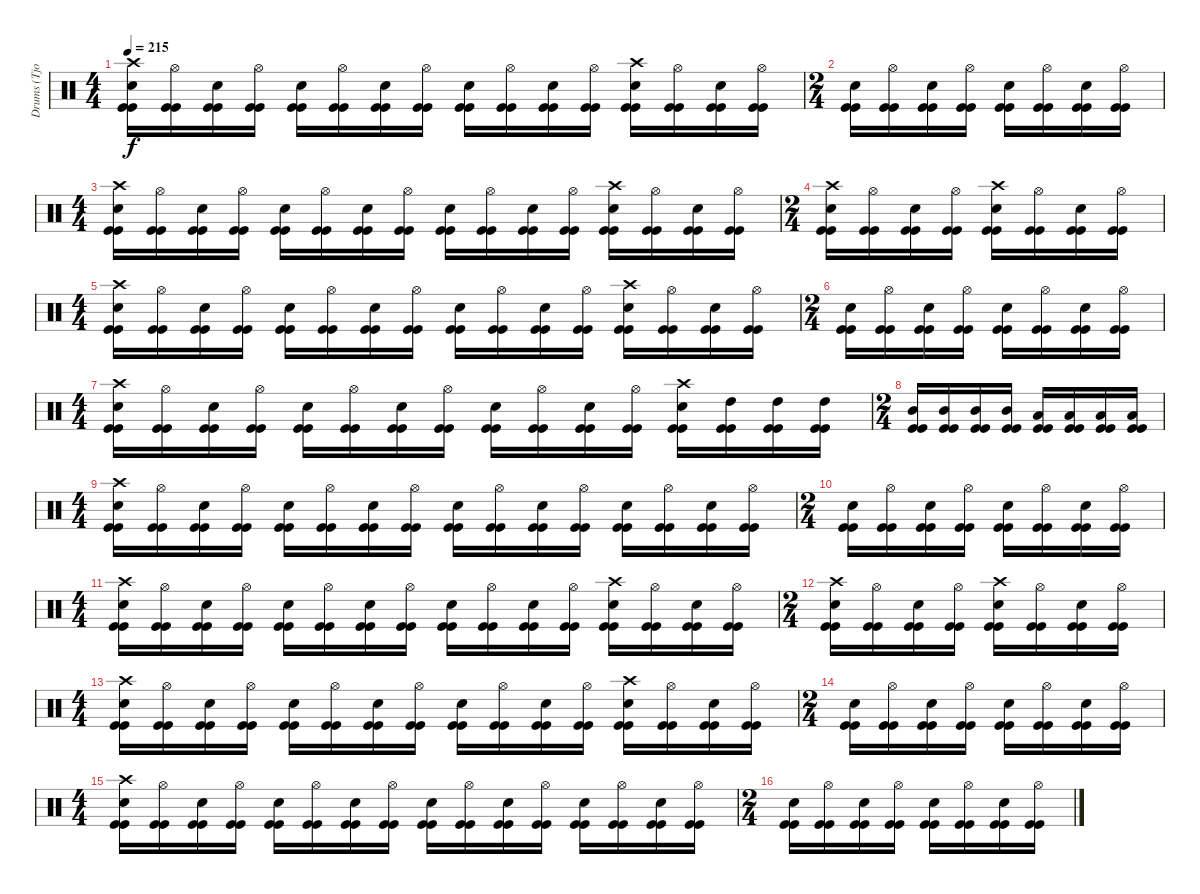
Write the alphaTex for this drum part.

\track ("Drums (Tjodalv)" "Drums (Tjo") {instrument percussion}
\staff {score}
\articulation defaults
\ts (4 4)
\tempo 215
\clef neutral
\ks c
("Crash high (hit)" "Snare (hit) 2" "Kick (hit)" "Kick (hit)").16{dy f} ("Hi-Hat (open)" "Kick (hit)" "Kick (hit)").16 ("Snare (hit) 2" "Kick (hit)" "Kick (hit)").16 ("Hi-Hat (open)" "Kick (hit)" "Kick (hit)").16 ("Snare (hit) 2" "Kick (hit)" "Kick (hit)").16 ("Hi-Hat (open)" "Kick (hit)" "Kick (hit)").16 ("Snare (hit) 2" "Kick (hit)" "Kick (hit)").16 ("Hi-Hat (open)" "Kick (hit)" "Kick (hit)").16 ("Snare (hit) 2" "Kick (hit)" "Kick (hit)").16 ("Hi-Hat (open)" "Kick (hit)" "Kick (hit)").16 ("Snare (hit) 2" "Kick (hit)" "Kick (hit)").16 ("Hi-Hat (open)" "Kick (hit)" "Kick (hit)").16 ("Crash high (hit)" "Snare (hit) 2" "Kick (hit)" "Kick (hit)").16 ("Hi-Hat (open)" "Kick (hit)" "Kick (hit)").16 ("Snare (hit) 2" "Kick (hit)" "Kick (hit)").16 ("Hi-Hat (open)" "Kick (hit)" "Kick (hit)").16 |
\ts (2 4)
("Snare (hit) 2" "Kick (hit)" "Kick (hit)").16 ("Hi-Hat (open)" "Kick (hit)" "Kick (hit)").16 ("Snare (hit) 2" "Kick (hit)" "Kick (hit)").16 ("Hi-Hat (open)" "Kick (hit)" "Kick (hit)").16 ("Snare (hit) 2" "Kick (hit)" "Kick (hit)").16 ("Hi-Hat (open)" "Kick (hit)" "Kick (hit)").16 ("Snare (hit) 2" "Kick (hit)" "Kick (hit)").16 ("Hi-Hat (open)" "Kick (hit)" "Kick (hit)").16 |
\ts (4 4)
("Crash high (hit)" "Snare (hit) 2" "Kick (hit)" "Kick (hit)").16 ("Hi-Hat (open)" "Kick (hit)" "Kick (hit)").16 ("Snare (hit) 2" "Kick (hit)" "Kick (hit)").16 ("Hi-Hat (open)" "Kick (hit)" "Kick (hit)").16 ("Snare (hit) 2" "Kick (hit)" "Kick (hit)").16 ("Hi-Hat (open)" "Kick (hit)" "Kick (hit)").16 ("Snare (hit) 2" "Kick (hit)" "Kick (hit)").16 ("Hi-Hat (open)" "Kick (hit)" "Kick (hit)").16 ("Snare (hit) 2" "Kick (hit)" "Kick (hit)").16 ("Hi-Hat (open)" "Kick (hit)" "Kick (hit)").16 ("Snare (hit) 2" "Kick (hit)" "Kick (hit)").16 ("Hi-Hat (open)" "Kick (hit)" "Kick (hit)").16 ("Crash high (hit)" "Snare (hit) 2" "Kick (hit)" "Kick (hit)").16 ("Hi-Hat (open)" "Kick (hit)" "Kick (hit)").16 ("Snare (hit) 2" "Kick (hit)" "Kick (hit)").16 ("Hi-Hat (open)" "Kick (hit)" "Kick (hit)").16 |
\ts (2 4)
("Crash high (hit)" "Snare (hit) 2" "Kick (hit)" "Kick (hit)").16 ("Hi-Hat (open)" "Kick (hit)" "Kick (hit)").16 ("Snare (hit) 2" "Kick (hit)" "Kick (hit)").16 ("Hi-Hat (open)" "Kick (hit)" "Kick (hit)").16 ("Crash high (hit)" "Snare (hit) 2" "Kick (hit)" "Kick (hit)").16 ("Hi-Hat (open)" "Kick (hit)" "Kick (hit)").16 ("Snare (hit) 2" "Kick (hit)" "Kick (hit)").16 ("Hi-Hat (open)" "Kick (hit)" "Kick (hit)").16 |
\ts (4 4)
("Crash high (hit)" "Snare (hit) 2" "Kick (hit)" "Kick (hit)").16 ("Hi-Hat (open)" "Kick (hit)" "Kick (hit)").16 ("Snare (hit) 2" "Kick (hit)" "Kick (hit)").16 ("Hi-Hat (open)" "Kick (hit)" "Kick (hit)").16 ("Snare (hit) 2" "Kick (hit)" "Kick (hit)").16 ("Hi-Hat (open)" "Kick (hit)" "Kick (hit)").16 ("Snare (hit) 2" "Kick (hit)" "Kick (hit)").16 ("Hi-Hat (open)" "Kick (hit)" "Kick (hit)").16 ("Snare (hit) 2" "Kick (hit)" "Kick (hit)").16 ("Hi-Hat (open)" "Kick (hit)" "Kick (hit)").16 ("Snare (hit) 2" "Kick (hit)" "Kick (hit)").16 ("Hi-Hat (open)" "Kick (hit)" "Kick (hit)").16 ("Crash high (hit)" "Snare (hit) 2" "Kick (hit)" "Kick (hit)").16 ("Hi-Hat (open)" "Kick (hit)" "Kick (hit)").16 ("Snare (hit) 2" "Kick (hit)" "Kick (hit)").16 ("Hi-Hat (open)" "Kick (hit)" "Kick (hit)").16 |
\ts (2 4)
("Snare (hit) 2" "Kick (hit)" "Kick (hit)").16 ("Hi-Hat (open)" "Kick (hit)" "Kick (hit)").16 ("Snare (hit) 2" "Kick (hit)" "Kick (hit)").16 ("Hi-Hat (open)" "Kick (hit)" "Kick (hit)").16 ("Snare (hit) 2" "Kick (hit)" "Kick (hit)").16 ("Hi-Hat (open)" "Kick (hit)" "Kick (hit)").16 ("Snare (hit) 2" "Kick (hit)" "Kick (hit)").16 ("Hi-Hat (open)" "Kick (hit)" "Kick (hit)").16 |
\ts (4 4)
("Crash high (hit)" "Snare (hit) 2" "Kick (hit)" "Kick (hit)").16 ("Hi-Hat (open)" "Kick (hit)" "Kick (hit)").16 ("Snare (hit) 2" "Kick (hit)" "Kick (hit)").16 ("Hi-Hat (open)" "Kick (hit)" "Kick (hit)").16 ("Snare (hit) 2" "Kick (hit)" "Kick (hit)").16 ("Hi-Hat (open)" "Kick (hit)" "Kick (hit)").16 ("Snare (hit) 2" "Kick (hit)" "Kick (hit)").16 ("Hi-Hat (open)" "Kick (hit)" "Kick (hit)").16 ("Snare (hit) 2" "Kick (hit)" "Kick (hit)").16 ("Hi-Hat (open)" "Kick (hit)" "Kick (hit)").16 ("Snare (hit) 2" "Kick (hit)" "Kick (hit)").16 ("Hi-Hat (open)" "Kick (hit)" "Kick (hit)").16 ("Crash high (hit)" "Snare (hit) 2" "Kick (hit)" "Kick (hit)").16 ("High Tom (hit)" "Kick (hit)" "Kick (hit)").16 ("High Tom (hit)" "Kick (hit)" "Kick (hit)").16 ("High Tom (hit)" "Kick (hit)" "Kick (hit)").16 |
\ts (2 4)
("Mid Tom (hit)" "Kick (hit)" "Kick (hit)").16 ("Mid Tom (hit)" "Kick (hit)" "Kick (hit)").16 ("Mid Tom (hit)" "Kick (hit)" "Kick (hit)").16 ("Mid Tom (hit)" "Kick (hit)" "Kick (hit)").16 ("Low Tom (hit)" "Kick (hit)" "Kick (hit)").16 ("Low Tom (hit)" "Kick (hit)" "Kick (hit)").16 ("Low Tom (hit)" "Kick (hit)" "Kick (hit)").16 ("Low Tom (hit)" "Kick (hit)" "Kick (hit)").16 |
\ts (4 4)
("Crash high (hit)" "Snare (hit) 2" "Kick (hit)" "Kick (hit)").16 ("Hi-Hat (open)" "Kick (hit)" "Kick (hit)").16 ("Snare (hit) 2" "Kick (hit)" "Kick (hit)").16 ("Hi-Hat (open)" "Kick (hit)" "Kick (hit)").16 ("Snare (hit) 2" "Kick (hit)" "Kick (hit)").16 ("Hi-Hat (open)" "Kick (hit)" "Kick (hit)").16 ("Snare (hit) 2" "Kick (hit)" "Kick (hit)").16 ("Hi-Hat (open)" "Kick (hit)" "Kick (hit)").16 ("Snare (hit) 2" "Kick (hit)" "Kick (hit)").16 ("Hi-Hat (open)" "Kick (hit)" "Kick (hit)").16 ("Snare (hit) 2" "Kick (hit)" "Kick (hit)").16 ("Hi-Hat (open)" "Kick (hit)" "Kick (hit)").16 ("Snare (hit) 2" "Kick (hit)" "Kick (hit)").16 ("Hi-Hat (open)" "Kick (hit)" "Kick (hit)").16 ("Snare (hit) 2" "Kick (hit)" "Kick (hit)").16 ("Hi-Hat (open)" "Kick (hit)" "Kick (hit)").16 |
\ts (2 4)
("Snare (hit) 2" "Kick (hit)" "Kick (hit)").16 ("Hi-Hat (open)" "Kick (hit)" "Kick (hit)").16 ("Snare (hit) 2" "Kick (hit)" "Kick (hit)").16 ("Hi-Hat (open)" "Kick (hit)" "Kick (hit)").16 ("Snare (hit) 2" "Kick (hit)" "Kick (hit)").16 ("Hi-Hat (open)" "Kick (hit)" "Kick (hit)").16 ("Snare (hit) 2" "Kick (hit)" "Kick (hit)").16 ("Hi-Hat (open)" "Kick (hit)" "Kick (hit)").16 |
\ts (4 4)
("Crash high (hit)" "Snare (hit) 2" "Kick (hit)" "Kick (hit)").16 ("Hi-Hat (open)" "Kick (hit)" "Kick (hit)").16 ("Snare (hit) 2" "Kick (hit)" "Kick (hit)").16 ("Hi-Hat (open)" "Kick (hit)" "Kick (hit)").16 ("Snare (hit) 2" "Kick (hit)" "Kick (hit)").16 ("Hi-Hat (open)" "Kick (hit)" "Kick (hit)").16 ("Snare (hit) 2" "Kick (hit)" "Kick (hit)").16 ("Hi-Hat (open)" "Kick (hit)" "Kick (hit)").16 ("Snare (hit) 2" "Kick (hit)" "Kick (hit)").16 ("Hi-Hat (open)" "Kick (hit)" "Kick (hit)").16 ("Snare (hit) 2" "Kick (hit)" "Kick (hit)").16 ("Hi-Hat (open)" "Kick (hit)" "Kick (hit)").16 ("Crash high (hit)" "Snare (hit) 2" "Kick (hit)" "Kick (hit)").16 ("Hi-Hat (open)" "Kick (hit)" "Kick (hit)").16 ("Snare (hit) 2" "Kick (hit)" "Kick (hit)").16 ("Hi-Hat (open)" "Kick (hit)" "Kick (hit)").16 |
\ts (2 4)
("Crash high (hit)" "Snare (hit) 2" "Kick (hit)" "Kick (hit)").16 ("Hi-Hat (open)" "Kick (hit)" "Kick (hit)").16 ("Snare (hit) 2" "Kick (hit)" "Kick (hit)").16 ("Hi-Hat (open)" "Kick (hit)" "Kick (hit)").16 ("Crash high (hit)" "Snare (hit) 2" "Kick (hit)" "Kick (hit)").16 ("Hi-Hat (open)" "Kick (hit)" "Kick (hit)").16 ("Snare (hit) 2" "Kick (hit)" "Kick (hit)").16 ("Hi-Hat (open)" "Kick (hit)" "Kick (hit)").16 |
\ts (4 4)
("Crash high (hit)" "Snare (hit) 2" "Kick (hit)" "Kick (hit)").16 ("Hi-Hat (open)" "Kick (hit)" "Kick (hit)").16 ("Snare (hit) 2" "Kick (hit)" "Kick (hit)").16 ("Hi-Hat (open)" "Kick (hit)" "Kick (hit)").16 ("Snare (hit) 2" "Kick (hit)" "Kick (hit)").16 ("Hi-Hat (open)" "Kick (hit)" "Kick (hit)").16 ("Snare (hit) 2" "Kick (hit)" "Kick (hit)").16 ("Hi-Hat (open)" "Kick (hit)" "Kick (hit)").16 ("Snare (hit) 2" "Kick (hit)" "Kick (hit)").16 ("Hi-Hat (open)" "Kick (hit)" "Kick (hit)").16 ("Snare (hit) 2" "Kick (hit)" "Kick (hit)").16 ("Hi-Hat (open)" "Kick (hit)" "Kick (hit)").16 ("Crash high (hit)" "Snare (hit) 2" "Kick (hit)" "Kick (hit)").16 ("Hi-Hat (open)" "Kick (hit)" "Kick (hit)").16 ("Snare (hit) 2" "Kick (hit)" "Kick (hit)").16 ("Hi-Hat (open)" "Kick (hit)" "Kick (hit)").16 |
\ts (2 4)
("Snare (hit) 2" "Kick (hit)" "Kick (hit)").16 ("Hi-Hat (open)" "Kick (hit)" "Kick (hit)").16 ("Snare (hit) 2" "Kick (hit)" "Kick (hit)").16 ("Hi-Hat (open)" "Kick (hit)" "Kick (hit)").16 ("Snare (hit) 2" "Kick (hit)" "Kick (hit)").16 ("Hi-Hat (open)" "Kick (hit)" "Kick (hit)").16 ("Snare (hit) 2" "Kick (hit)" "Kick (hit)").16 ("Hi-Hat (open)" "Kick (hit)" "Kick (hit)").16 |
\ts (4 4)
("Crash high (hit)" "Snare (hit) 2" "Kick (hit)" "Kick (hit)").16 ("Hi-Hat (open)" "Kick (hit)" "Kick (hit)").16 ("Snare (hit) 2" "Kick (hit)" "Kick (hit)").16 ("Hi-Hat (open)" "Kick (hit)" "Kick (hit)").16 ("Snare (hit) 2" "Kick (hit)" "Kick (hit)").16 ("Hi-Hat (open)" "Kick (hit)" "Kick (hit)").16 ("Snare (hit) 2" "Kick (hit)" "Kick (hit)").16 ("Hi-Hat (open)" "Kick (hit)" "Kick (hit)").16 ("Snare (hit) 2" "Kick (hit)" "Kick (hit)").16 ("Hi-Hat (open)" "Kick (hit)" "Kick (hit)").16 ("Snare (hit) 2" "Kick (hit)" "Kick (hit)").16 ("Hi-Hat (open)" "Kick (hit)" "Kick (hit)").16 ("Snare (hit) 2" "Kick (hit)" "Kick (hit)").16 ("Hi-Hat (open)" "Kick (hit)" "Kick (hit)").16 ("Snare (hit) 2" "Kick (hit)" "Kick (hit)").16 ("Hi-Hat (open)" "Kick (hit)" "Kick (hit)").16 |
\ts (2 4)
("Snare (hit) 2" "Kick (hit)" "Kick (hit)").16 ("Hi-Hat (open)" "Kick (hit)" "Kick (hit)").16 ("Snare (hit) 2" "Kick (hit)" "Kick (hit)").16 ("Hi-Hat (open)" "Kick (hit)" "Kick (hit)").16 ("Snare (hit) 2" "Kick (hit)" "Kick (hit)").16 ("Hi-Hat (open)" "Kick (hit)" "Kick (hit)").16 ("Snare (hit) 2" "Kick (hit)" "Kick (hit)").16 ("Hi-Hat (open)" "Kick (hit)" "Kick (hit)").16
